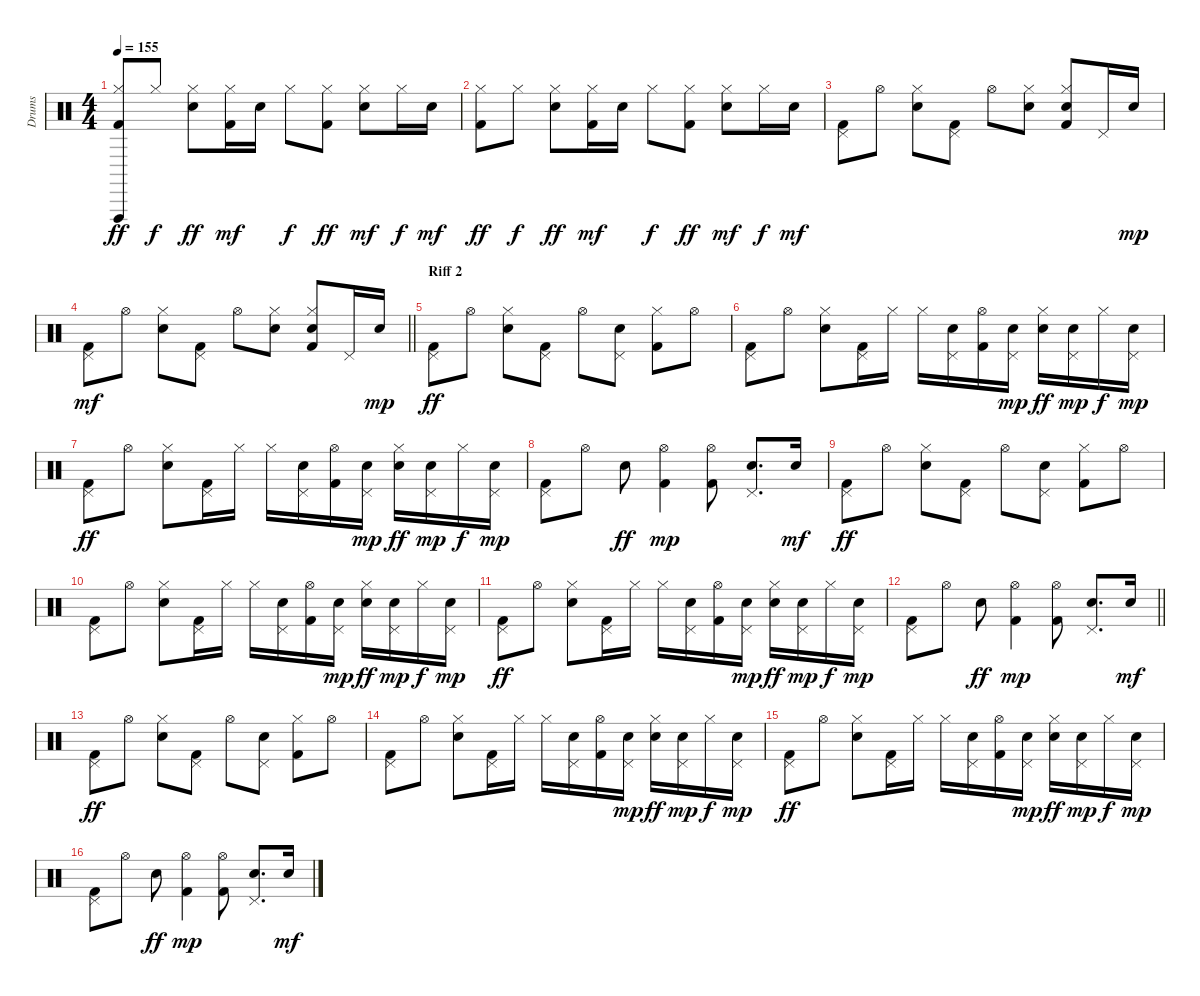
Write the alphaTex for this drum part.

\track ("Drums" "Drums") {instrument percussion}
\staff {score}
\articulation defaults
\ts (4 4)
\tempo 155
\clef neutral
\ks c
("Kick (hit) 2" "Hi-Hat (closed)" "Vibraslap (hit)").8{dy ff} "Hi-Hat (closed)".8{dy f} ("Snare (hit) 2" "Hi-Hat (closed)").8{dy ff} ("Kick (hit) 2" "Hi-Hat (closed)").16{dy mf} "Snare (hit) 2".16 "Hi-Hat (closed)".8{dy f} ("Kick (hit) 2" "Hi-Hat (closed)").8{dy ff} ("Snare (hit) 2" "Hi-Hat (closed)").8{dy mf} "Hi-Hat (closed)".16{dy f} "Snare (hit) 2".16{dy mf} |
("Kick (hit) 2" "Hi-Hat (closed)").8{dy ff} "Hi-Hat (closed)".8{dy f} ("Snare (hit) 2" "Hi-Hat (closed)").8{dy ff} ("Kick (hit) 2" "Hi-Hat (closed)").16{dy mf} "Snare (hit) 2".16 "Hi-Hat (closed)".8{dy f} ("Kick (hit) 2" "Hi-Hat (closed)").8{dy ff} ("Snare (hit) 2" "Hi-Hat (closed)").8{dy mf} "Hi-Hat (closed)".16{dy f} "Snare (hit) 2".16{dy mf} |
("Kick (hit) 2" "Pedal Hi-Hat (hit)").8 "Hi-Hat (open)".8 ("Snare (hit) 2" "Hi-Hat (closed)").8 ("Kick (hit) 2" "Pedal Hi-Hat (hit)").8 "Hi-Hat (open)".8 ("Snare (hit) 2" "Hi-Hat (closed)").8 ("Kick (hit) 2" "Snare (hit) 2" "Hi-Hat (closed)").8 "Pedal Hi-Hat (hit)".16 "Snare (hit) 2".16{dy mp} |
\barLineRight lightlight
("Kick (hit) 2" "Pedal Hi-Hat (hit)").8{dy mf} "Hi-Hat (open)".8 ("Snare (hit) 2" "Hi-Hat (closed)").8 ("Kick (hit) 2" "Pedal Hi-Hat (hit)").8 "Hi-Hat (open)".8 ("Snare (hit) 2" "Hi-Hat (closed)").8 ("Kick (hit) 2" "Snare (hit) 2" "Hi-Hat (closed)").8 "Pedal Hi-Hat (hit)".16 "Snare (hit) 2".16{dy mp} |
\section ("" "Riff 2")
("Kick (hit) 2" "Pedal Hi-Hat (hit)").8{dy ff} "Hi-Hat (open)".8 ("Electric Snare (hit)" "Hi-Hat (closed)").8 ("Kick (hit) 2" "Pedal Hi-Hat (hit)").8 "Hi-Hat (open)".8 ("Electric Snare (hit)" "Pedal Hi-Hat (hit)").8 ("Kick (hit) 2" "Hi-Hat (closed)").8 "Hi-Hat (open)".8 |
("Kick (hit) 2" "Pedal Hi-Hat (hit)").8 "Hi-Hat (open)".8 ("Electric Snare (hit)" "Hi-Hat (closed)").8 ("Kick (hit) 2" "Pedal Hi-Hat (hit)").16 "Hi-Hat (closed)".16 "Hi-Hat (closed)".16 ("Snare (hit) 2" "Pedal Hi-Hat (hit)").16 ("Kick (hit) 2" "Hi-Hat (open)").16 ("Snare (hit) 2" "Pedal Hi-Hat (hit)").16{dy mp} ("Electric Snare (hit)" "Hi-Hat (closed)").16{dy ff} ("Snare (hit) 2" "Pedal Hi-Hat (hit)").16{dy mp} "Hi-Hat (closed)".16{dy f} ("Snare (hit) 2" "Pedal Hi-Hat (hit)").16{dy mp} |
("Kick (hit) 2" "Pedal Hi-Hat (hit)").8{dy ff} "Hi-Hat (open)".8 ("Electric Snare (hit)" "Hi-Hat (closed)").8 ("Kick (hit) 2" "Pedal Hi-Hat (hit)").16 "Hi-Hat (closed)".16 "Hi-Hat (closed)".16 ("Snare (hit) 2" "Pedal Hi-Hat (hit)").16 ("Kick (hit) 2" "Hi-Hat (open)").16 ("Snare (hit) 2" "Pedal Hi-Hat (hit)").16{dy mp} ("Electric Snare (hit)" "Hi-Hat (closed)").16{dy ff} ("Snare (hit) 2" "Pedal Hi-Hat (hit)").16{dy mp} "Hi-Hat (closed)".16{dy f} ("Snare (hit) 2" "Pedal Hi-Hat (hit)").16{dy mp} |
("Kick (hit) 2" "Pedal Hi-Hat (hit)").8 "Hi-Hat (open)".8 "Electric Snare (hit)".8{dy ff} ("Kick (hit) 2" "Hi-Hat (open)").4{dy mp} ("Kick (hit) 2" "Hi-Hat (open)").8 ("Electric Snare (hit)" "Pedal Hi-Hat (hit)").8{d} "Electric Snare (hit)".16{dy mf} |
("Kick (hit) 2" "Pedal Hi-Hat (hit)").8{dy ff} "Hi-Hat (open)".8 ("Electric Snare (hit)" "Hi-Hat (closed)").8 ("Kick (hit) 2" "Pedal Hi-Hat (hit)").8 "Hi-Hat (open)".8 ("Electric Snare (hit)" "Pedal Hi-Hat (hit)").8 ("Kick (hit) 2" "Hi-Hat (closed)").8 "Hi-Hat (open)".8 |
("Kick (hit) 2" "Pedal Hi-Hat (hit)").8 "Hi-Hat (open)".8 ("Electric Snare (hit)" "Hi-Hat (closed)").8 ("Kick (hit) 2" "Pedal Hi-Hat (hit)").16 "Hi-Hat (closed)".16 "Hi-Hat (closed)".16 ("Snare (hit) 2" "Pedal Hi-Hat (hit)").16 ("Kick (hit) 2" "Hi-Hat (open)").16 ("Snare (hit) 2" "Pedal Hi-Hat (hit)").16{dy mp} ("Electric Snare (hit)" "Hi-Hat (closed)").16{dy ff} ("Snare (hit) 2" "Pedal Hi-Hat (hit)").16{dy mp} "Hi-Hat (closed)".16{dy f} ("Snare (hit) 2" "Pedal Hi-Hat (hit)").16{dy mp} |
("Kick (hit) 2" "Pedal Hi-Hat (hit)").8{dy ff} "Hi-Hat (open)".8 ("Electric Snare (hit)" "Hi-Hat (closed)").8 ("Kick (hit) 2" "Pedal Hi-Hat (hit)").16 "Hi-Hat (closed)".16 "Hi-Hat (closed)".16 ("Snare (hit) 2" "Pedal Hi-Hat (hit)").16 ("Kick (hit) 2" "Hi-Hat (open)").16 ("Snare (hit) 2" "Pedal Hi-Hat (hit)").16{dy mp} ("Electric Snare (hit)" "Hi-Hat (closed)").16{dy ff} ("Snare (hit) 2" "Pedal Hi-Hat (hit)").16{dy mp} "Hi-Hat (closed)".16{dy f} ("Snare (hit) 2" "Pedal Hi-Hat (hit)").16{dy mp} |
\barLineRight lightlight
("Kick (hit) 2" "Pedal Hi-Hat (hit)").8 "Hi-Hat (open)".8 "Electric Snare (hit)".8{dy ff} ("Kick (hit) 2" "Hi-Hat (open)").4{dy mp} ("Kick (hit) 2" "Hi-Hat (open)").8 ("Electric Snare (hit)" "Pedal Hi-Hat (hit)").8{d} "Electric Snare (hit)".16{dy mf} |
("Kick (hit) 2" "Pedal Hi-Hat (hit)").8{dy ff} "Hi-Hat (open)".8 ("Electric Snare (hit)" "Hi-Hat (closed)").8 ("Kick (hit) 2" "Pedal Hi-Hat (hit)").8 "Hi-Hat (open)".8 ("Electric Snare (hit)" "Pedal Hi-Hat (hit)").8 ("Kick (hit) 2" "Hi-Hat (closed)").8 "Hi-Hat (open)".8 |
("Kick (hit) 2" "Pedal Hi-Hat (hit)").8 "Hi-Hat (open)".8 ("Electric Snare (hit)" "Hi-Hat (closed)").8 ("Kick (hit) 2" "Pedal Hi-Hat (hit)").16 "Hi-Hat (closed)".16 "Hi-Hat (closed)".16 ("Snare (hit) 2" "Pedal Hi-Hat (hit)").16 ("Kick (hit) 2" "Hi-Hat (open)").16 ("Snare (hit) 2" "Pedal Hi-Hat (hit)").16{dy mp} ("Electric Snare (hit)" "Hi-Hat (closed)").16{dy ff} ("Snare (hit) 2" "Pedal Hi-Hat (hit)").16{dy mp} "Hi-Hat (closed)".16{dy f} ("Snare (hit) 2" "Pedal Hi-Hat (hit)").16{dy mp} |
("Kick (hit) 2" "Pedal Hi-Hat (hit)").8{dy ff} "Hi-Hat (open)".8 ("Electric Snare (hit)" "Hi-Hat (closed)").8 ("Kick (hit) 2" "Pedal Hi-Hat (hit)").16 "Hi-Hat (closed)".16 "Hi-Hat (closed)".16 ("Snare (hit) 2" "Pedal Hi-Hat (hit)").16 ("Kick (hit) 2" "Hi-Hat (open)").16 ("Snare (hit) 2" "Pedal Hi-Hat (hit)").16{dy mp} ("Electric Snare (hit)" "Hi-Hat (closed)").16{dy ff} ("Snare (hit) 2" "Pedal Hi-Hat (hit)").16{dy mp} "Hi-Hat (closed)".16{dy f} ("Snare (hit) 2" "Pedal Hi-Hat (hit)").16{dy mp} |
("Kick (hit) 2" "Pedal Hi-Hat (hit)").8 "Hi-Hat (open)".8 "Electric Snare (hit)".8{dy ff} ("Kick (hit) 2" "Hi-Hat (open)").4{dy mp} ("Kick (hit) 2" "Hi-Hat (open)").8 ("Electric Snare (hit)" "Pedal Hi-Hat (hit)").8{d} "Electric Snare (hit)".16{dy mf}
